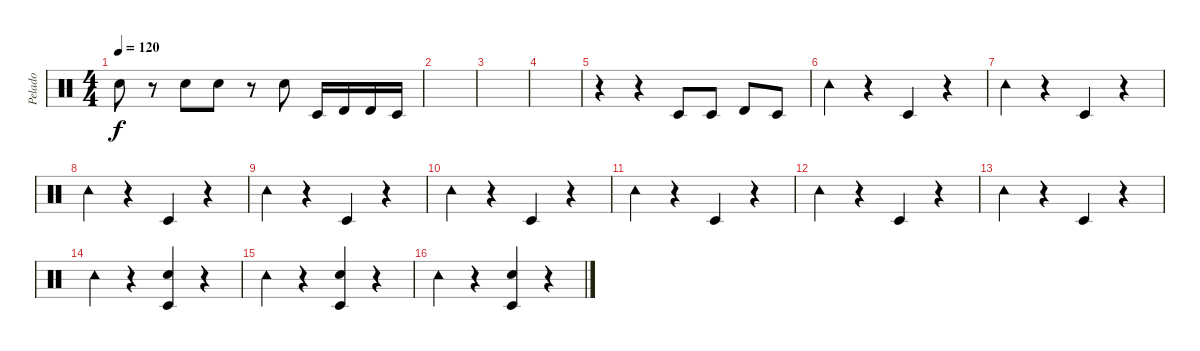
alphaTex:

\track ("Pelado" "Pelado") {instrument percussion}
\staff {score}
\articulation defaults
\ts (4 4)
\tempo 120
\clef neutral
\ks c "Snare (hit) 2".8{dy f}
r.8 "Electric Snare (hit)".8 "Electric Snare (hit)".8 r.8 "Snare (hit) 2".8 "Timbale low (hit)".16 "Timbale high (hit)".16 "Timbale high (hit)".16 "Timbale low (hit)".16 |
|
|
|
r.4 r.4 "Timbale low (hit)".8 "Timbale low (hit)".8 "Timbale high (hit)".8 "Timbale low (hit)".8 |
"Tambourine (hit)".4 r.4 "Timbale low (hit)".4 r.4 |
"Tambourine (hit)".4 r.4 "Timbale low (hit)".4 r.4 |
"Tambourine (hit)".4 r.4 "Timbale low (hit)".4 r.4 |
"Tambourine (hit)".4 r.4 "Timbale low (hit)".4 r.4 |
"Tambourine (hit)".4 r.4 "Timbale low (hit)".4 r.4 |
"Tambourine (hit)".4 r.4 "Timbale low (hit)".4 r.4 |
"Tambourine (hit)".4 r.4 "Timbale low (hit)".4 r.4 |
"Tambourine (hit)".4 r.4 "Timbale low (hit)".4 r.4 |
"Tambourine (hit)".4 r.4 ("Electric Snare (hit)" "Timbale low (hit)").4 r.4 |
"Tambourine (hit)".4 r.4 ("Electric Snare (hit)" "Timbale low (hit)").4 r.4 |
"Tambourine (hit)".4 r.4 ("Electric Snare (hit)" "Timbale low (hit)").4 r.4
